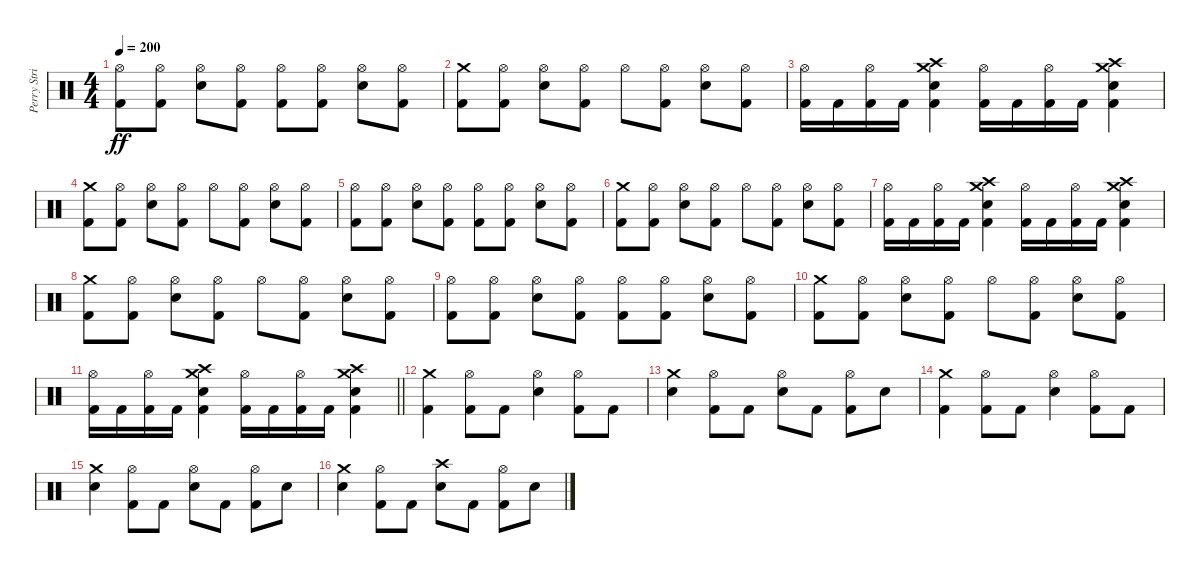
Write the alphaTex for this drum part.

\track ("Perry Strickland" "Perry Stri") {instrument percussion}
\staff {score}
\articulation defaults
\ts (4 4)
\tempo 200
\clef neutral
\ks c
("Hi-Hat (open)" "Kick (hit) 2").8{dy ff} ("Hi-Hat (open)" "Kick (hit) 2").8 ("Hi-Hat (open)" "Snare (hit) 2").8 ("Hi-Hat (open)" "Kick (hit) 2").8 ("Hi-Hat (open)" "Kick (hit) 2").8 ("Hi-Hat (open)" "Kick (hit) 2").8 ("Hi-Hat (open)" "Snare (hit) 2").8 ("Hi-Hat (open)" "Kick (hit) 2").8 |
("Crash medium (hit)" "Kick (hit) 2").8 ("Hi-Hat (open)" "Kick (hit) 2").8 ("Hi-Hat (open)" "Snare (hit) 2").8 ("Hi-Hat (open)" "Kick (hit) 2").8 "Hi-Hat (open)".8 ("Hi-Hat (open)" "Kick (hit) 2").8 ("Hi-Hat (open)" "Snare (hit) 2").8 ("Hi-Hat (open)" "Kick (hit) 2").8 |
("Hi-Hat (open)" "Kick (hit) 2").16 "Kick (hit) 2".16 ("Hi-Hat (open)" "Kick (hit) 2").16 "Kick (hit) 2".16 ("Crash high (hit)" "Crash medium (hit)" "Snare (hit) 2" "Kick (hit) 2").4 ("Hi-Hat (open)" "Kick (hit) 2").16 "Kick (hit) 2".16 ("Hi-Hat (open)" "Kick (hit) 2").16 "Kick (hit) 2".16 ("Crash high (hit)" "Crash medium (hit)" "Snare (hit) 2" "Kick (hit) 2").4 |
("Crash medium (hit)" "Kick (hit) 2").8 ("Hi-Hat (open)" "Kick (hit) 2").8 ("Hi-Hat (open)" "Snare (hit) 2").8 ("Hi-Hat (open)" "Kick (hit) 2").8 "Hi-Hat (open)".8 ("Hi-Hat (open)" "Kick (hit) 2").8 ("Hi-Hat (open)" "Snare (hit) 2").8 ("Hi-Hat (open)" "Kick (hit) 2").8 |
("Hi-Hat (open)" "Kick (hit) 2").8 ("Hi-Hat (open)" "Kick (hit) 2").8 ("Hi-Hat (open)" "Snare (hit) 2").8 ("Hi-Hat (open)" "Kick (hit) 2").8 ("Hi-Hat (open)" "Kick (hit) 2").8 ("Hi-Hat (open)" "Kick (hit) 2").8 ("Hi-Hat (open)" "Snare (hit) 2").8 ("Hi-Hat (open)" "Kick (hit) 2").8 |
("Crash medium (hit)" "Kick (hit) 2").8 ("Hi-Hat (open)" "Kick (hit) 2").8 ("Hi-Hat (open)" "Snare (hit) 2").8 ("Hi-Hat (open)" "Kick (hit) 2").8 "Hi-Hat (open)".8 ("Hi-Hat (open)" "Kick (hit) 2").8 ("Hi-Hat (open)" "Snare (hit) 2").8 ("Hi-Hat (open)" "Kick (hit) 2").8 |
("Hi-Hat (open)" "Kick (hit) 2").16 "Kick (hit) 2".16 ("Hi-Hat (open)" "Kick (hit) 2").16 "Kick (hit) 2".16 ("Crash high (hit)" "Crash medium (hit)" "Snare (hit) 2" "Kick (hit) 2").4 ("Hi-Hat (open)" "Kick (hit) 2").16 "Kick (hit) 2".16 ("Hi-Hat (open)" "Kick (hit) 2").16 "Kick (hit) 2".16 ("Crash high (hit)" "Crash medium (hit)" "Snare (hit) 2" "Kick (hit) 2").4 |
("Crash medium (hit)" "Kick (hit) 2").8 ("Hi-Hat (open)" "Kick (hit) 2").8 ("Hi-Hat (open)" "Snare (hit) 2").8 ("Hi-Hat (open)" "Kick (hit) 2").8 "Hi-Hat (open)".8 ("Hi-Hat (open)" "Kick (hit) 2").8 ("Hi-Hat (open)" "Snare (hit) 2").8 ("Hi-Hat (open)" "Kick (hit) 2").8 |
("Hi-Hat (open)" "Kick (hit) 2").8 ("Hi-Hat (open)" "Kick (hit) 2").8 ("Hi-Hat (open)" "Snare (hit) 2").8 ("Hi-Hat (open)" "Kick (hit) 2").8 ("Hi-Hat (open)" "Kick (hit) 2").8 ("Hi-Hat (open)" "Kick (hit) 2").8 ("Hi-Hat (open)" "Snare (hit) 2").8 ("Hi-Hat (open)" "Kick (hit) 2").8 |
("Crash medium (hit)" "Kick (hit) 2").8 ("Hi-Hat (open)" "Kick (hit) 2").8 ("Hi-Hat (open)" "Snare (hit) 2").8 ("Hi-Hat (open)" "Kick (hit) 2").8 "Hi-Hat (open)".8 ("Hi-Hat (open)" "Kick (hit) 2").8 ("Hi-Hat (open)" "Snare (hit) 2").8 ("Hi-Hat (open)" "Kick (hit) 2").8 |
\barLineRight lightlight
("Hi-Hat (open)" "Kick (hit) 2").16 "Kick (hit) 2".16 ("Hi-Hat (open)" "Kick (hit) 2").16 "Kick (hit) 2".16 ("Crash high (hit)" "Crash medium (hit)" "Snare (hit) 2" "Kick (hit) 2").4 ("Hi-Hat (open)" "Kick (hit) 2").16 "Kick (hit) 2".16 ("Hi-Hat (open)" "Kick (hit) 2").16 "Kick (hit) 2".16 ("Crash high (hit)" "Crash medium (hit)" "Snare (hit) 2" "Kick (hit) 2").4 |
("Crash medium (hit)" "Kick (hit) 2").4 ("Hi-Hat (open)" "Kick (hit) 2").8 "Kick (hit) 2".8 ("Hi-Hat (open)" "Snare (hit) 2").4 ("Hi-Hat (open)" "Kick (hit) 2").8 "Kick (hit) 2".8 |
("Crash medium (hit)" "Snare (hit) 2").4 ("Hi-Hat (open)" "Kick (hit) 2").8 "Kick (hit) 2".8 ("Hi-Hat (open)" "Snare (hit) 2").8 "Kick (hit) 2".8 ("Hi-Hat (open)" "Kick (hit) 2").8 "Snare (hit) 2".8 |
("Crash medium (hit)" "Kick (hit) 2").4 ("Hi-Hat (open)" "Kick (hit) 2").8 "Kick (hit) 2".8 ("Hi-Hat (open)" "Snare (hit) 2").4 ("Hi-Hat (open)" "Kick (hit) 2").8 "Kick (hit) 2".8 |
("Crash medium (hit)" "Snare (hit) 2").4 ("Hi-Hat (open)" "Kick (hit) 2").8 "Kick (hit) 2".8 ("Hi-Hat (open)" "Snare (hit) 2").8 "Kick (hit) 2".8 ("Hi-Hat (open)" "Kick (hit) 2").8 "Snare (hit) 2".8 |
("Crash medium (hit)" "Snare (hit) 2").4 ("Hi-Hat (open)" "Kick (hit) 2").8 "Kick (hit) 2".8 ("Crash high (hit)" "Snare (hit) 2").8 "Kick (hit) 2".8 ("Hi-Hat (open)" "Kick (hit) 2").8 "Snare (hit) 2".8
